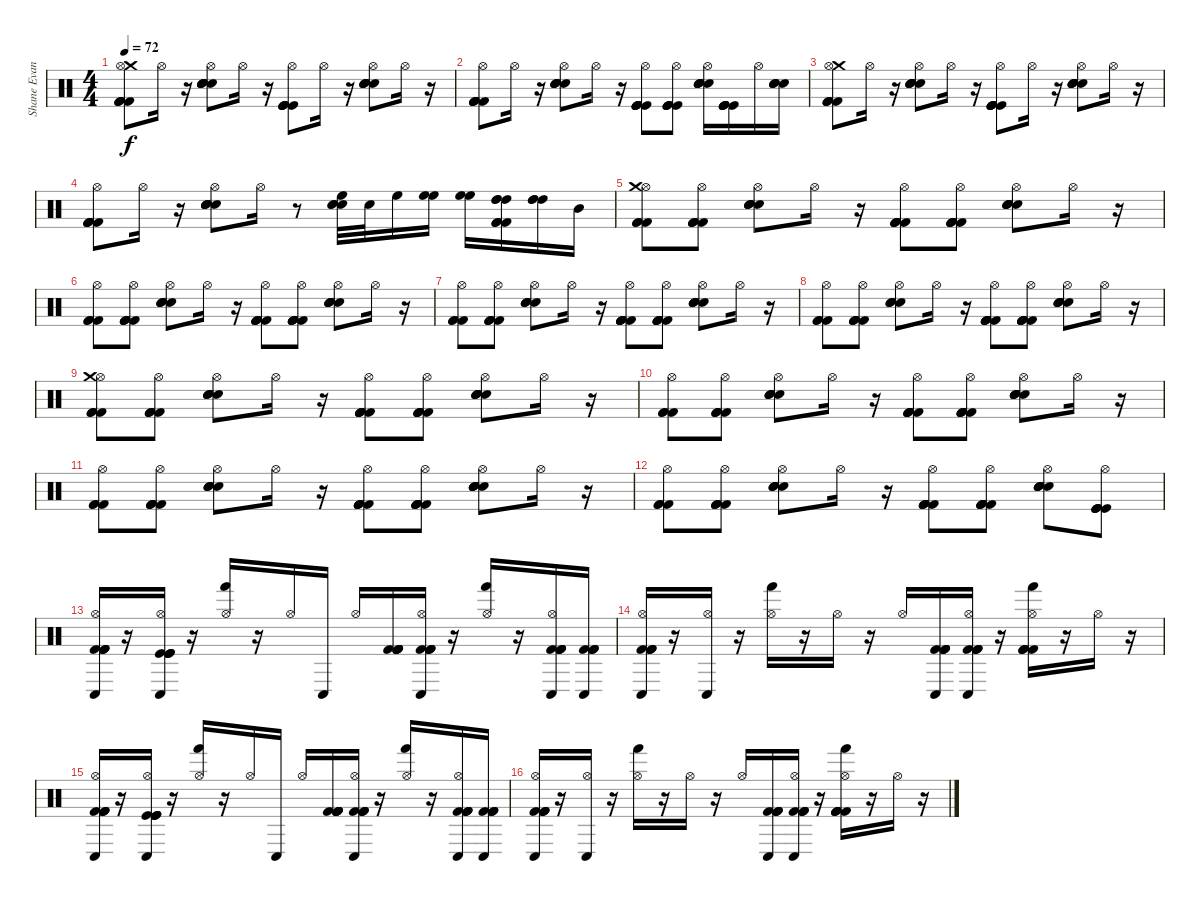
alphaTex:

\track ("Shane Evans" "Shane Evan") {instrument percussion}
\staff {score}
\articulation defaults
\ts (4 4)
\tempo 72
\clef neutral
\ks c
("Crash medium (hit)" "Kick (hit) 2" "Kick (hit) 2" "Kick (hit) 2" "Kick (hit) 2" "Hi-Hat (open)").8{dy f} "Hi-Hat (open)".16 r.16 ("Hi-Hat (open)" "Snare (hit) 2" "Snare (hit) 2" "Snare (hit) 2" "Snare (hit) 2" "Snare (hit) 2").8 "Hi-Hat (open)".16 r.16 ("Hi-Hat (open)" "Kick (hit)" "Kick (hit)" "Kick (hit)" "Kick (hit)" "Kick (hit)").8 "Hi-Hat (open)".16 r.16 ("Hi-Hat (open)" "Snare (hit) 2" "Snare (hit) 2" "Snare (hit) 2" "Snare (hit) 2" "Snare (hit) 2").8 "Hi-Hat (open)".16 r.16 |
("Kick (hit) 2" "Kick (hit) 2" "Kick (hit) 2" "Kick (hit) 2" "Hi-Hat (open)" "Kick (hit) 2").8 "Hi-Hat (open)".16 r.16 ("Hi-Hat (open)" "Snare (hit) 2" "Snare (hit) 2" "Snare (hit) 2" "Snare (hit) 2" "Snare (hit) 2").8 "Hi-Hat (open)".16 r.16 ("Hi-Hat (open)" "Kick (hit)" "Kick (hit)" "Kick (hit)" "Kick (hit)" "Kick (hit)").8 ("Hi-Hat (open)" "Kick (hit)" "Kick (hit)" "Kick (hit)" "Kick (hit)").8 ("Hi-Hat (open)" "Snare (hit) 2" "Snare (hit) 2" "Snare (hit) 2" "Snare (hit) 2" "Snare (hit) 2").16 ("Kick (hit)" "Kick (hit)" "Kick (hit)" "Kick (hit)" "Kick (hit)").16 "Hi-Hat (open)".16 ("Snare (hit) 2" "Snare (hit) 2" "Snare (hit) 2" "Snare (hit) 2").16 |
("Crash medium (hit)" "Kick (hit) 2" "Kick (hit) 2" "Kick (hit) 2" "Kick (hit) 2" "Hi-Hat (open)").8 "Hi-Hat (open)".16 r.16 ("Hi-Hat (open)" "Snare (hit) 2" "Snare (hit) 2" "Snare (hit) 2" "Snare (hit) 2" "Snare (hit) 2").8 "Hi-Hat (open)".16 r.16 ("Hi-Hat (open)" "Kick (hit)" "Kick (hit)" "Kick (hit)" "Kick (hit)" "Kick (hit)").8 "Hi-Hat (open)".16 r.16 ("Hi-Hat (open)" "Snare (hit) 2" "Snare (hit) 2" "Snare (hit) 2" "Snare (hit) 2" "Snare (hit) 2").8 "Hi-Hat (open)".16 r.16 |
("Kick (hit) 2" "Kick (hit) 2" "Kick (hit) 2" "Kick (hit) 2" "Hi-Hat (open)" "Kick (hit) 2").8 "Hi-Hat (open)".16 r.16 ("Hi-Hat (open)" "Snare (hit) 2" "Snare (hit) 2" "Snare (hit) 2" "Snare (hit) 2" "Snare (hit) 2").8 "Hi-Hat (open)".16 r.8 ("Snare (hit) 2" "High Floor Tom (hit)" "Snare (hit) 2" "Snare (hit) 2").32 "Snare (hit) 2".32 "High Floor Tom (hit)".16 ("High Floor Tom (hit)" "High Floor Tom (hit)").16 ("High Floor Tom (hit)" "High Floor Tom (hit)").16 ("High Tom (hit)" "High Tom (hit)" "High Tom (hit)" "Kick (hit) 2" "Kick (hit) 2" "Kick (hit) 2").16 ("High Tom (hit)" "High Tom (hit)" "High Tom (hit)").16 "Mid Tom (hit)".16 |
("Hi-Hat (open)" "Crash medium (hit)" "Kick (hit) 2" "Kick (hit) 2" "Kick (hit) 2").8 ("Hi-Hat (open)" "Kick (hit) 2" "Kick (hit) 2" "Kick (hit) 2" "Kick (hit) 2").8 ("Hi-Hat (open)" "Snare (hit) 2" "Snare (hit) 2" "Snare (hit) 2" "Snare (hit) 2").8 "Hi-Hat (open)".16 r.16 ("Hi-Hat (open)" "Kick (hit) 2" "Kick (hit) 2" "Kick (hit) 2" "Kick (hit) 2" "Kick (hit) 2").8 ("Hi-Hat (open)" "Kick (hit) 2" "Kick (hit) 2" "Kick (hit) 2" "Kick (hit) 2" "Kick (hit) 2").8 ("Hi-Hat (open)" "Snare (hit) 2" "Snare (hit) 2" "Snare (hit) 2" "Snare (hit) 2" "Snare (hit) 2").8 "Hi-Hat (open)".16 r.16 |
("Hi-Hat (open)" "Kick (hit) 2" "Kick (hit) 2" "Kick (hit) 2").8 ("Hi-Hat (open)" "Kick (hit) 2" "Kick (hit) 2" "Kick (hit) 2" "Kick (hit) 2").8 ("Hi-Hat (open)" "Snare (hit) 2" "Snare (hit) 2" "Snare (hit) 2" "Snare (hit) 2").8 "Hi-Hat (open)".16 r.16 ("Hi-Hat (open)" "Kick (hit) 2" "Kick (hit) 2" "Kick (hit) 2" "Kick (hit) 2" "Kick (hit) 2").8 ("Hi-Hat (open)" "Kick (hit) 2" "Kick (hit) 2" "Kick (hit) 2" "Kick (hit) 2" "Kick (hit) 2").8 ("Hi-Hat (open)" "Snare (hit) 2" "Snare (hit) 2" "Snare (hit) 2" "Snare (hit) 2" "Snare (hit) 2").8 "Hi-Hat (open)".16 r.16 |
("Hi-Hat (open)" "Kick (hit) 2" "Kick (hit) 2" "Kick (hit) 2").8 ("Hi-Hat (open)" "Kick (hit) 2" "Kick (hit) 2" "Kick (hit) 2" "Kick (hit) 2").8 ("Hi-Hat (open)" "Snare (hit) 2" "Snare (hit) 2" "Snare (hit) 2" "Snare (hit) 2").8 "Hi-Hat (open)".16 r.16 ("Hi-Hat (open)" "Kick (hit) 2" "Kick (hit) 2" "Kick (hit) 2" "Kick (hit) 2" "Kick (hit) 2").8 ("Hi-Hat (open)" "Kick (hit) 2" "Kick (hit) 2" "Kick (hit) 2" "Kick (hit) 2" "Kick (hit) 2").8 ("Hi-Hat (open)" "Snare (hit) 2" "Snare (hit) 2" "Snare (hit) 2" "Snare (hit) 2" "Snare (hit) 2").8 "Hi-Hat (open)".16 r.16 |
("Hi-Hat (open)" "Kick (hit) 2" "Kick (hit) 2" "Kick (hit) 2").8 ("Hi-Hat (open)" "Kick (hit) 2" "Kick (hit) 2" "Kick (hit) 2" "Kick (hit) 2").8 ("Hi-Hat (open)" "Snare (hit) 2" "Snare (hit) 2" "Snare (hit) 2" "Snare (hit) 2").8 "Hi-Hat (open)".16 r.16 ("Hi-Hat (open)" "Kick (hit) 2" "Kick (hit) 2" "Kick (hit) 2" "Kick (hit) 2" "Kick (hit) 2").8 ("Hi-Hat (open)" "Kick (hit) 2" "Kick (hit) 2" "Kick (hit) 2" "Kick (hit) 2" "Kick (hit) 2").8 ("Hi-Hat (open)" "Snare (hit) 2" "Snare (hit) 2" "Snare (hit) 2" "Snare (hit) 2" "Snare (hit) 2").8 "Hi-Hat (open)".16 r.16 |
("Hi-Hat (open)" "Crash medium (hit)" "Kick (hit) 2" "Kick (hit) 2" "Kick (hit) 2").8 ("Hi-Hat (open)" "Kick (hit) 2" "Kick (hit) 2" "Kick (hit) 2" "Kick (hit) 2").8 ("Hi-Hat (open)" "Snare (hit) 2" "Snare (hit) 2" "Snare (hit) 2" "Snare (hit) 2").8 "Hi-Hat (open)".16 r.16 ("Hi-Hat (open)" "Kick (hit) 2" "Kick (hit) 2" "Kick (hit) 2" "Kick (hit) 2" "Kick (hit) 2").8 ("Hi-Hat (open)" "Kick (hit) 2" "Kick (hit) 2" "Kick (hit) 2" "Kick (hit) 2" "Kick (hit) 2").8 ("Hi-Hat (open)" "Snare (hit) 2" "Snare (hit) 2" "Snare (hit) 2" "Snare (hit) 2" "Snare (hit) 2").8 "Hi-Hat (open)".16 r.16 |
("Hi-Hat (open)" "Kick (hit) 2" "Kick (hit) 2" "Kick (hit) 2").8 ("Hi-Hat (open)" "Kick (hit) 2" "Kick (hit) 2" "Kick (hit) 2" "Kick (hit) 2").8 ("Hi-Hat (open)" "Snare (hit) 2" "Snare (hit) 2" "Snare (hit) 2" "Snare (hit) 2").8 "Hi-Hat (open)".16 r.16 ("Hi-Hat (open)" "Kick (hit) 2" "Kick (hit) 2" "Kick (hit) 2" "Kick (hit) 2" "Kick (hit) 2").8 ("Hi-Hat (open)" "Kick (hit) 2" "Kick (hit) 2" "Kick (hit) 2" "Kick (hit) 2" "Kick (hit) 2").8 ("Hi-Hat (open)" "Snare (hit) 2" "Snare (hit) 2" "Snare (hit) 2" "Snare (hit) 2" "Snare (hit) 2").8 "Hi-Hat (open)".16 r.16 |
("Hi-Hat (open)" "Kick (hit) 2" "Kick (hit) 2" "Kick (hit) 2").8 ("Hi-Hat (open)" "Kick (hit) 2" "Kick (hit) 2" "Kick (hit) 2" "Kick (hit) 2").8 ("Hi-Hat (open)" "Snare (hit) 2" "Snare (hit) 2" "Snare (hit) 2" "Snare (hit) 2").8 "Hi-Hat (open)".16 r.16 ("Hi-Hat (open)" "Kick (hit) 2" "Kick (hit) 2" "Kick (hit) 2" "Kick (hit) 2" "Kick (hit) 2").8 ("Hi-Hat (open)" "Kick (hit) 2" "Kick (hit) 2" "Kick (hit) 2" "Kick (hit) 2" "Kick (hit) 2").8 ("Hi-Hat (open)" "Snare (hit) 2" "Snare (hit) 2" "Snare (hit) 2" "Snare (hit) 2" "Snare (hit) 2").8 "Hi-Hat (open)".16 r.16 |
("Hi-Hat (open)" "Kick (hit) 2" "Kick (hit) 2" "Kick (hit) 2").8 ("Hi-Hat (open)" "Kick (hit) 2" "Kick (hit) 2" "Kick (hit) 2" "Kick (hit) 2").8 ("Hi-Hat (open)" "Snare (hit) 2" "Snare (hit) 2" "Snare (hit) 2" "Snare (hit) 2").8 "Hi-Hat (open)".16 r.16 ("Hi-Hat (open)" "Kick (hit) 2" "Kick (hit) 2" "Kick (hit) 2" "Kick (hit) 2" "Kick (hit) 2").8 ("Hi-Hat (open)" "Kick (hit) 2" "Kick (hit) 2" "Kick (hit) 2" "Kick (hit) 2" "Kick (hit) 2").8 ("Hi-Hat (open)" "Snare (hit) 2" "Snare (hit) 2" "Snare (hit) 2" "Snare (hit) 2" "Snare (hit) 2").8 ("Hi-Hat (open)" "Kick (hit)" "Kick (hit)" "Kick (hit)" "Kick (hit)").8 |
("Conga low (hit)" "Hi-Hat (open)" "Kick (hit) 2" "Kick (hit) 2" "Kick (hit) 2" "Kick (hit) 2").16 r.16 ("Conga low (hit)" "Hi-Hat (open)" "Kick (hit)" "Kick (hit)" "Kick (hit)" "Kick (hit)").16 r.16 ("Hand (hit)" "Hi-Hat (open)").16 r.16 "Hi-Hat (open)".16 "Conga low (hit)".16 "Hi-Hat (open)".16 ("Kick (hit) 2" "Kick (hit) 2" "Kick (hit) 2" "Kick (hit) 2" "Kick (hit) 2" "Kick (hit) 2").16 ("Conga low (hit)" "Hi-Hat (open)" "Kick (hit) 2" "Kick (hit) 2" "Kick (hit) 2" "Kick (hit) 2").16 r.16 ("Hand (hit)" "Hi-Hat (open)").16 r.16 ("Conga low (hit)" "Hi-Hat (open)" "Kick (hit) 2" "Kick (hit) 2" "Kick (hit) 2" "Kick (hit) 2").16 ("Conga low (hit)" "Kick (hit) 2" "Kick (hit) 2" "Kick (hit) 2" "Kick (hit) 2").16 |
("Conga low (hit)" "Hi-Hat (open)" "Kick (hit) 2" "Kick (hit) 2" "Kick (hit) 2" "Kick (hit) 2").16 r.16 ("Conga low (hit)" "Hi-Hat (open)").16 r.16 ("Hand (hit)" "Hi-Hat (open)").16 r.16 "Hi-Hat (open)".16 r.16 "Hi-Hat (open)".16 ("Conga low (hit)" "Kick (hit) 2" "Kick (hit) 2" "Kick (hit) 2" "Kick (hit) 2").16 ("Conga low (hit)" "Hi-Hat (open)" "Kick (hit) 2" "Kick (hit) 2" "Kick (hit) 2" "Kick (hit) 2").16 r.16 ("Hand (hit)" "Hi-Hat (open)" "Kick (hit) 2" "Kick (hit) 2" "Kick (hit) 2" "Kick (hit) 2").16 r.16 "Hi-Hat (open)".16 r.16 |
("Conga low (hit)" "Hi-Hat (open)" "Kick (hit) 2" "Kick (hit) 2" "Kick (hit) 2" "Kick (hit) 2").16 r.16 ("Conga low (hit)" "Hi-Hat (open)" "Kick (hit)" "Kick (hit)" "Kick (hit)" "Kick (hit)").16 r.16 ("Hand (hit)" "Hi-Hat (open)").16 r.16 "Hi-Hat (open)".16 "Conga low (hit)".16 "Hi-Hat (open)".16 ("Kick (hit) 2" "Kick (hit) 2" "Kick (hit) 2" "Kick (hit) 2" "Kick (hit) 2" "Kick (hit) 2").16 ("Conga low (hit)" "Hi-Hat (open)" "Kick (hit) 2" "Kick (hit) 2" "Kick (hit) 2" "Kick (hit) 2").16 r.16 ("Hand (hit)" "Hi-Hat (open)").16 r.16 ("Conga low (hit)" "Hi-Hat (open)" "Kick (hit) 2" "Kick (hit) 2" "Kick (hit) 2" "Kick (hit) 2").16 ("Conga low (hit)" "Kick (hit) 2" "Kick (hit) 2" "Kick (hit) 2" "Kick (hit) 2").16 |
("Conga low (hit)" "Hi-Hat (open)" "Kick (hit) 2" "Kick (hit) 2" "Kick (hit) 2" "Kick (hit) 2").16 r.16 ("Conga low (hit)" "Hi-Hat (open)").16 r.16 ("Hand (hit)" "Hi-Hat (open)").16 r.16 "Hi-Hat (open)".16 r.16 "Hi-Hat (open)".16 ("Conga low (hit)" "Kick (hit) 2" "Kick (hit) 2" "Kick (hit) 2" "Kick (hit) 2").16 ("Conga low (hit)" "Hi-Hat (open)" "Kick (hit) 2" "Kick (hit) 2" "Kick (hit) 2" "Kick (hit) 2").16 r.16 ("Hand (hit)" "Hi-Hat (open)" "Kick (hit) 2" "Kick (hit) 2" "Kick (hit) 2" "Kick (hit) 2").16 r.16 "Hi-Hat (open)".16 r.16
